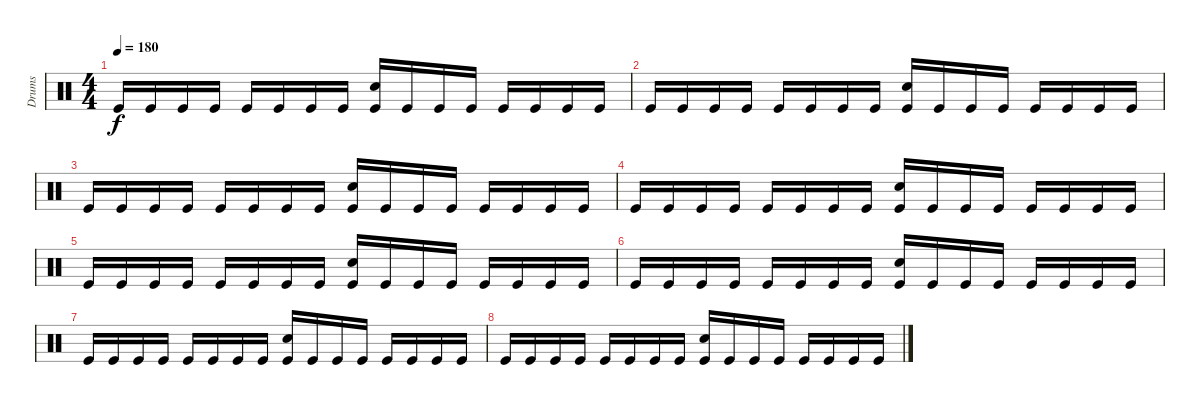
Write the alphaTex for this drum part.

\track ("Drums" "Drums") {instrument percussion}
\staff {score}
\articulation defaults
\ts (4 4)
\tempo 180
\clef neutral
\ks c "Kick (hit)".16{dy f} "Kick (hit)".16 "Kick (hit)".16 "Kick (hit)".16 "Kick (hit)".16 "Kick (hit)".16 "Kick (hit)".16 "Kick (hit)".16
("Kick (hit)" "Snare (hit) 2").16 "Kick (hit)".16 "Kick (hit)".16 "Kick (hit)".16 "Kick (hit)".16 "Kick (hit)".16 "Kick (hit)".16 "Kick (hit)".16 |
"Kick (hit)".16 "Kick (hit)".16 "Kick (hit)".16 "Kick (hit)".16 "Kick (hit)".16 "Kick (hit)".16 "Kick (hit)".16 "Kick (hit)".16 ("Kick (hit)" "Snare (hit) 2").16 "Kick (hit)".16 "Kick (hit)".16 "Kick (hit)".16 "Kick (hit)".16 "Kick (hit)".16 "Kick (hit)".16 "Kick (hit)".16 |
"Kick (hit)".16 "Kick (hit)".16 "Kick (hit)".16 "Kick (hit)".16 "Kick (hit)".16 "Kick (hit)".16 "Kick (hit)".16 "Kick (hit)".16 ("Kick (hit)" "Snare (hit) 2").16 "Kick (hit)".16 "Kick (hit)".16 "Kick (hit)".16 "Kick (hit)".16 "Kick (hit)".16 "Kick (hit)".16 "Kick (hit)".16 |
"Kick (hit)".16 "Kick (hit)".16 "Kick (hit)".16 "Kick (hit)".16 "Kick (hit)".16 "Kick (hit)".16 "Kick (hit)".16 "Kick (hit)".16 ("Kick (hit)" "Snare (hit) 2").16 "Kick (hit)".16 "Kick (hit)".16 "Kick (hit)".16 "Kick (hit)".16 "Kick (hit)".16 "Kick (hit)".16 "Kick (hit)".16 |
"Kick (hit)".16 "Kick (hit)".16 "Kick (hit)".16 "Kick (hit)".16 "Kick (hit)".16 "Kick (hit)".16 "Kick (hit)".16 "Kick (hit)".16 ("Kick (hit)" "Snare (hit) 2").16 "Kick (hit)".16 "Kick (hit)".16 "Kick (hit)".16 "Kick (hit)".16 "Kick (hit)".16 "Kick (hit)".16 "Kick (hit)".16 |
"Kick (hit)".16 "Kick (hit)".16 "Kick (hit)".16 "Kick (hit)".16 "Kick (hit)".16 "Kick (hit)".16 "Kick (hit)".16 "Kick (hit)".16 ("Kick (hit)" "Snare (hit) 2").16 "Kick (hit)".16 "Kick (hit)".16 "Kick (hit)".16 "Kick (hit)".16 "Kick (hit)".16 "Kick (hit)".16 "Kick (hit)".16 |
"Kick (hit)".16 "Kick (hit)".16 "Kick (hit)".16 "Kick (hit)".16 "Kick (hit)".16 "Kick (hit)".16 "Kick (hit)".16 "Kick (hit)".16 ("Kick (hit)" "Snare (hit) 2").16 "Kick (hit)".16 "Kick (hit)".16 "Kick (hit)".16 "Kick (hit)".16 "Kick (hit)".16 "Kick (hit)".16 "Kick (hit)".16 |
"Kick (hit)".16 "Kick (hit)".16 "Kick (hit)".16 "Kick (hit)".16 "Kick (hit)".16 "Kick (hit)".16 "Kick (hit)".16 "Kick (hit)".16 ("Kick (hit)" "Snare (hit) 2").16 "Kick (hit)".16 "Kick (hit)".16 "Kick (hit)".16 "Kick (hit)".16 "Kick (hit)".16 "Kick (hit)".16 "Kick (hit)".16
